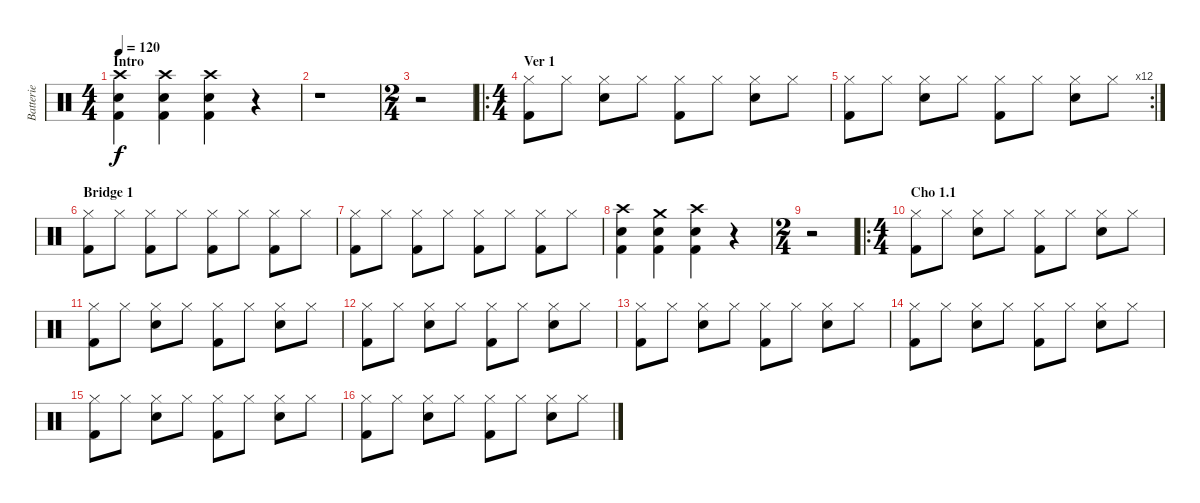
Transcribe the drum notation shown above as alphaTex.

\track ("Batterie" "Batterie") {instrument percussion}
\staff {score}
\articulation defaults
\ts (4 4)
\section ("" "Intro")
\tempo 120
\clef neutral
\ks c
("Crash high (hit)" "Electric Snare (hit)" "Kick (hit) 2").4{dy f} ("Crash high (hit)" "Electric Snare (hit)" "Kick (hit) 2").4 ("Crash high (hit)" "Electric Snare (hit)" "Kick (hit) 2").4 r.4 |
r.1 |
\ts (2 4)
r.2 |
\ro
\ts (4 4)
\section ("" "Ver 1")
("Hi-Hat (closed)" "Kick (hit) 2").8 "Hi-Hat (closed)".8 ("Hi-Hat (closed)" "Electric Snare (hit)").8 "Hi-Hat (closed)".8 ("Hi-Hat (closed)" "Kick (hit) 2").8 "Hi-Hat (closed)".8 ("Hi-Hat (closed)" "Electric Snare (hit)").8 "Hi-Hat (closed)".8 |
\rc 12
("Hi-Hat (closed)" "Kick (hit) 2").8 "Hi-Hat (closed)".8 ("Hi-Hat (closed)" "Electric Snare (hit)").8 "Hi-Hat (closed)".8 ("Hi-Hat (closed)" "Kick (hit) 2").8 "Hi-Hat (closed)".8 ("Hi-Hat (closed)" "Electric Snare (hit)").8 "Hi-Hat (closed)".8 |
\section ("" "Bridge 1")
("Hi-Hat (closed)" "Kick (hit) 2").8 "Hi-Hat (closed)".8 ("Hi-Hat (closed)" "Kick (hit) 2").8 "Hi-Hat (closed)".8 ("Hi-Hat (closed)" "Kick (hit) 2").8 "Hi-Hat (closed)".8 ("Hi-Hat (closed)" "Kick (hit) 2").8 "Hi-Hat (closed)".8 |
("Hi-Hat (closed)" "Kick (hit) 2").8 "Hi-Hat (closed)".8 ("Hi-Hat (closed)" "Kick (hit) 2").8 "Hi-Hat (closed)".8 ("Hi-Hat (closed)" "Kick (hit) 2").8 "Hi-Hat (closed)".8 ("Hi-Hat (closed)" "Kick (hit) 2").8 "Hi-Hat (closed)".8 |
("Crash high (hit)" "Electric Snare (hit)" "Kick (hit) 2").4 ("Crash medium (hit)" "Electric Snare (hit)" "Kick (hit) 2").4 ("Crash high (hit)" "Electric Snare (hit)" "Kick (hit) 2").4 r.4 |
\ts (2 4)
r.2 |
\ro
\ts (4 4)
\section ("" "Cho 1.1")
("Hi-Hat (closed)" "Kick (hit) 2").8 "Hi-Hat (closed)".8 ("Hi-Hat (closed)" "Electric Snare (hit)").8 "Hi-Hat (closed)".8 ("Hi-Hat (closed)" "Kick (hit) 2").8 "Hi-Hat (closed)".8 ("Hi-Hat (closed)" "Electric Snare (hit)").8 "Hi-Hat (closed)".8 |
("Hi-Hat (closed)" "Kick (hit) 2").8 "Hi-Hat (closed)".8 ("Hi-Hat (closed)" "Electric Snare (hit)").8 "Hi-Hat (closed)".8 ("Hi-Hat (closed)" "Kick (hit) 2").8 "Hi-Hat (closed)".8 ("Hi-Hat (closed)" "Electric Snare (hit)").8 "Hi-Hat (closed)".8 |
("Hi-Hat (closed)" "Kick (hit) 2").8 "Hi-Hat (closed)".8 ("Hi-Hat (closed)" "Electric Snare (hit)").8 "Hi-Hat (closed)".8 ("Hi-Hat (closed)" "Kick (hit) 2").8 "Hi-Hat (closed)".8 ("Hi-Hat (closed)" "Electric Snare (hit)").8 "Hi-Hat (closed)".8 |
("Hi-Hat (closed)" "Kick (hit) 2").8 "Hi-Hat (closed)".8 ("Hi-Hat (closed)" "Electric Snare (hit)").8 "Hi-Hat (closed)".8 ("Hi-Hat (closed)" "Kick (hit) 2").8 "Hi-Hat (closed)".8 ("Hi-Hat (closed)" "Electric Snare (hit)").8 "Hi-Hat (closed)".8 |
("Hi-Hat (closed)" "Kick (hit) 2").8 "Hi-Hat (closed)".8 ("Hi-Hat (closed)" "Electric Snare (hit)").8 "Hi-Hat (closed)".8 ("Hi-Hat (closed)" "Kick (hit) 2").8 "Hi-Hat (closed)".8 ("Hi-Hat (closed)" "Electric Snare (hit)").8 "Hi-Hat (closed)".8 |
("Hi-Hat (closed)" "Kick (hit) 2").8 "Hi-Hat (closed)".8 ("Hi-Hat (closed)" "Electric Snare (hit)").8 "Hi-Hat (closed)".8 ("Hi-Hat (closed)" "Kick (hit) 2").8 "Hi-Hat (closed)".8 ("Hi-Hat (closed)" "Electric Snare (hit)").8 "Hi-Hat (closed)".8 |
("Hi-Hat (closed)" "Kick (hit) 2").8 "Hi-Hat (closed)".8 ("Hi-Hat (closed)" "Electric Snare (hit)").8 "Hi-Hat (closed)".8 ("Hi-Hat (closed)" "Kick (hit) 2").8 "Hi-Hat (closed)".8 ("Hi-Hat (closed)" "Electric Snare (hit)").8 "Hi-Hat (closed)".8
